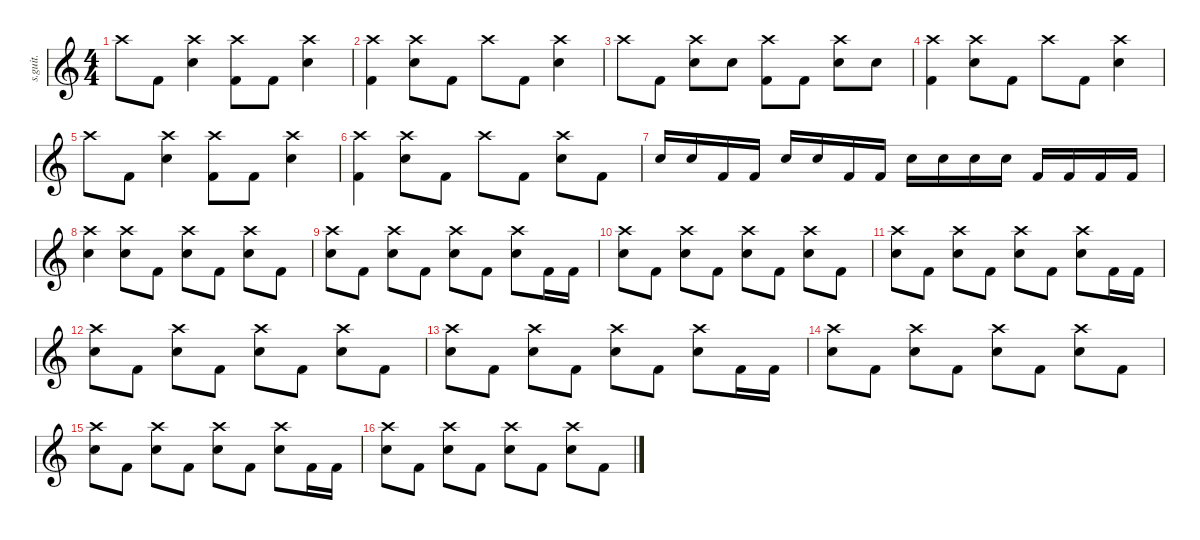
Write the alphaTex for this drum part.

\defaultSystemsLayout 4
\hideDynamics
\bracketExtendMode nobrackets
\track ("" "s.guit.") {instrument percussion}
\staff {score}
\articulation defaults
\ts (4 4)
\tempo (190 hide)
\clef g2
\ks c "Crash high (hit)".8{dy f} "Kick (hit) 2".8
("Crash high (hit)" "Snare (hit) 2").4 ("Crash high (hit)" "Kick (hit) 2").8 "Kick (hit) 2".8 ("Crash high (hit)" "Snare (hit) 2").4 |
("Crash high (hit)" "Kick (hit) 2").4 ("Crash high (hit)" "Snare (hit) 2").8 "Kick (hit) 2".8 "Crash high (hit)".8 "Kick (hit) 2".8 ("Crash high (hit)" "Snare (hit) 2").4 |
"Crash high (hit)".8 "Kick (hit) 2".8 ("Crash high (hit)" "Snare (hit) 2").8 "Snare (hit) 2".8 ("Crash high (hit)" "Kick (hit) 2").8 "Kick (hit) 2".8 ("Crash high (hit)" "Snare (hit) 2").8 "Snare (hit) 2".8 |
("Crash high (hit)" "Kick (hit) 2").4 ("Crash high (hit)" "Snare (hit) 2").8 "Kick (hit) 2".8 "Crash high (hit)".8 "Kick (hit) 2".8 ("Crash high (hit)" "Snare (hit) 2").4 |
"Crash high (hit)".8 "Kick (hit) 2".8 ("Crash high (hit)" "Snare (hit) 2").4 ("Crash high (hit)" "Kick (hit) 2").8 "Kick (hit) 2".8 ("Crash high (hit)" "Snare (hit) 2").4 |
("Crash high (hit)" "Kick (hit) 2").4 ("Crash high (hit)" "Snare (hit) 2").8 "Kick (hit) 2".8 "Crash high (hit)".8 "Kick (hit) 2".8 ("Crash high (hit)" "Snare (hit) 2").8 "Kick (hit) 2".8 |
"Snare (hit) 2".16 "Snare (hit) 2".16 "Kick (hit) 2".16 "Kick (hit) 2".16 "Snare (hit) 2".16 "Snare (hit) 2".16 "Kick (hit) 2".16 "Kick (hit) 2".16 "Snare (hit) 2".16 "Snare (hit) 2".16 "Snare (hit) 2".16 "Snare (hit) 2".16 "Kick (hit) 2".16 "Kick (hit) 2".16 "Kick (hit) 2".16 "Kick (hit) 2".16 |
("Crash high (hit)" "Snare (hit) 2").4 ("Crash high (hit)" "Snare (hit) 2").8 "Kick (hit) 2".8 ("Crash high (hit)" "Snare (hit) 2").8 "Kick (hit) 2".8 ("Crash high (hit)" "Snare (hit) 2").8 "Kick (hit) 2".8 |
("Crash high (hit)" "Snare (hit) 2").8 "Kick (hit) 2".8 ("Crash high (hit)" "Snare (hit) 2").8 "Kick (hit) 2".8 ("Crash high (hit)" "Snare (hit) 2").8 "Kick (hit) 2".8 ("Crash high (hit)" "Snare (hit) 2").8 "Kick (hit) 2".16 "Kick (hit) 2".16 |
("Crash high (hit)" "Snare (hit) 2").8 "Kick (hit) 2".8 ("Crash high (hit)" "Snare (hit) 2").8 "Kick (hit) 2".8 ("Crash high (hit)" "Snare (hit) 2").8 "Kick (hit) 2".8 ("Crash high (hit)" "Snare (hit) 2").8 "Kick (hit) 2".8 |
("Crash high (hit)" "Snare (hit) 2").8 "Kick (hit) 2".8 ("Crash high (hit)" "Snare (hit) 2").8 "Kick (hit) 2".8 ("Crash high (hit)" "Snare (hit) 2").8 "Kick (hit) 2".8 ("Crash high (hit)" "Snare (hit) 2").8 "Kick (hit) 2".16 "Kick (hit) 2".16 |
("Crash high (hit)" "Snare (hit) 2").8 "Kick (hit) 2".8 ("Crash high (hit)" "Snare (hit) 2").8 "Kick (hit) 2".8 ("Crash high (hit)" "Snare (hit) 2").8 "Kick (hit) 2".8 ("Crash high (hit)" "Snare (hit) 2").8 "Kick (hit) 2".8 |
("Crash high (hit)" "Snare (hit) 2").8 "Kick (hit) 2".8 ("Crash high (hit)" "Snare (hit) 2").8 "Kick (hit) 2".8 ("Crash high (hit)" "Snare (hit) 2").8 "Kick (hit) 2".8 ("Crash high (hit)" "Snare (hit) 2").8 "Kick (hit) 2".16 "Kick (hit) 2".16 |
("Crash high (hit)" "Snare (hit) 2").8 "Kick (hit) 2".8 ("Crash high (hit)" "Snare (hit) 2").8 "Kick (hit) 2".8 ("Crash high (hit)" "Snare (hit) 2").8 "Kick (hit) 2".8 ("Crash high (hit)" "Snare (hit) 2").8 "Kick (hit) 2".8 |
("Crash high (hit)" "Snare (hit) 2").8 "Kick (hit) 2".8 ("Crash high (hit)" "Snare (hit) 2").8 "Kick (hit) 2".8 ("Crash high (hit)" "Snare (hit) 2").8 "Kick (hit) 2".8 ("Crash high (hit)" "Snare (hit) 2").8 "Kick (hit) 2".16 "Kick (hit) 2".16 |
("Crash high (hit)" "Snare (hit) 2").8 "Kick (hit) 2".8 ("Crash high (hit)" "Snare (hit) 2").8 "Kick (hit) 2".8 ("Crash high (hit)" "Snare (hit) 2").8 "Kick (hit) 2".8 ("Crash high (hit)" "Snare (hit) 2").8 "Kick (hit) 2".8
